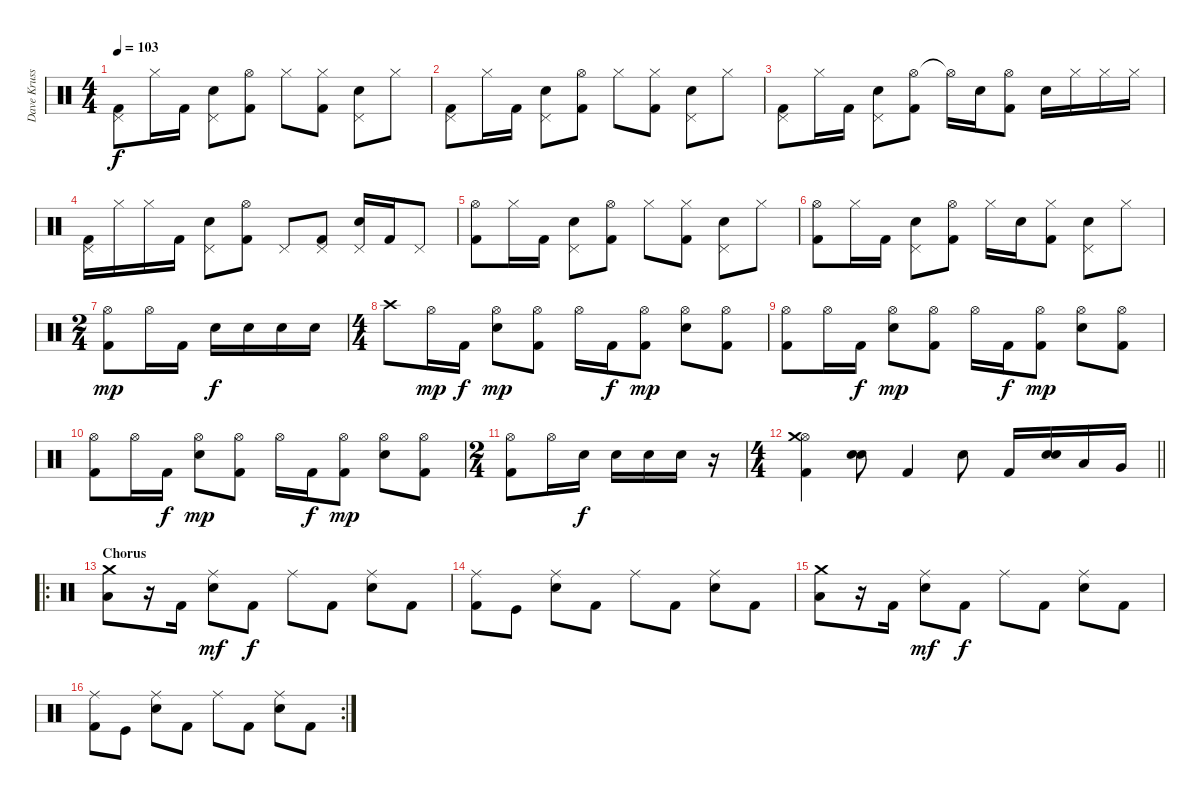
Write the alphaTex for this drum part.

\track ("Dave Krussen" "Dave Kruss") {instrument percussion}
\staff {score}
\articulation defaults
\ts (4 4)
\tempo 103
\clef neutral
\ks c
("Pedal Hi-Hat (hit)" "Kick (hit) 2").8{dy f} "Hi-Hat (closed)".16 "Kick (hit) 2".16 ("Pedal Hi-Hat (hit)" "Electric Snare (hit)").8 ("Hi-Hat (open)" "Kick (hit) 2").8 "Hi-Hat (closed)".8 ("Hi-Hat (closed)" "Kick (hit) 2").8 ("Pedal Hi-Hat (hit)" "Electric Snare (hit)").8 "Hi-Hat (closed)".8 |
("Pedal Hi-Hat (hit)" "Kick (hit) 2").8 "Hi-Hat (closed)".16 "Kick (hit) 2".16 ("Pedal Hi-Hat (hit)" "Electric Snare (hit)").8 ("Hi-Hat (open)" "Kick (hit) 2").8 "Hi-Hat (closed)".8 ("Hi-Hat (closed)" "Kick (hit) 2").8 ("Pedal Hi-Hat (hit)" "Electric Snare (hit)").8 "Hi-Hat (closed)".8 |
("Pedal Hi-Hat (hit)" "Kick (hit) 2").8 "Hi-Hat (closed)".16 "Kick (hit) 2".16 ("Pedal Hi-Hat (hit)" "Electric Snare (hit)").8 ("Hi-Hat (open)" "Kick (hit) 2").8 "Hi-Hat (open)"{t}.16 "Electric Snare (hit)".16 ("Hi-Hat (open)" "Kick (hit) 2").8 "Electric Snare (hit)".16 "Hi-Hat (closed)".16 "Hi-Hat (closed)".16 "Hi-Hat (closed)".16 |
("Pedal Hi-Hat (hit)" "Kick (hit) 2").16 "Hi-Hat (closed)".16 "Hi-Hat (closed)".16 "Kick (hit) 2".16 ("Pedal Hi-Hat (hit)" "Electric Snare (hit)").8 ("Hi-Hat (open)" "Kick (hit) 2").8 "Pedal Hi-Hat (hit)".8 ("Pedal Hi-Hat (hit)" "Kick (hit) 2").8 ("Pedal Hi-Hat (hit)" "Electric Snare (hit)").16 "Kick (hit) 2".16 "Pedal Hi-Hat (hit)".8 |
("Hi-Hat (open)" "Kick (hit) 2").8 "Hi-Hat (closed)".16 "Kick (hit) 2".16 ("Pedal Hi-Hat (hit)" "Electric Snare (hit)").8 ("Hi-Hat (open)" "Kick (hit) 2").8 "Hi-Hat (closed)".8 ("Hi-Hat (closed)" "Kick (hit) 2").8 ("Pedal Hi-Hat (hit)" "Electric Snare (hit)").8 "Hi-Hat (closed)".8 |
("Hi-Hat (open)" "Kick (hit) 2").8 "Hi-Hat (closed)".16 "Kick (hit) 2".16 ("Pedal Hi-Hat (hit)" "Electric Snare (hit)").8 ("Hi-Hat (open)" "Kick (hit) 2").8 "Hi-Hat (closed)".16 "Electric Snare (hit)".16 ("Hi-Hat (closed)" "Kick (hit) 2").8 ("Pedal Hi-Hat (hit)" "Electric Snare (hit)").8 "Hi-Hat (closed)".8 |
\ts (2 4)
("Hi-Hat (open)" "Kick (hit) 2").8{dy mp} "Hi-Hat (open)".16 "Kick (hit) 2".16 "Electric Snare (hit)".16{dy f} "Electric Snare (hit)".16 "Electric Snare (hit)".16 "Electric Snare (hit)".16 |
\ts (4 4)
"Crash high (hit)".8 "Hi-Hat (open)".16{dy mp} "Kick (hit) 2".16{dy f} ("Hi-Hat (open)" "Electric Snare (hit)").8{dy mp} ("Hi-Hat (open)" "Kick (hit) 2").8 "Hi-Hat (open)".16 "Kick (hit) 2".16{dy f} ("Hi-Hat (open)" "Kick (hit) 2").8{dy mp} ("Hi-Hat (open)" "Electric Snare (hit)").8 ("Hi-Hat (open)" "Kick (hit) 2").8 |
("Hi-Hat (open)" "Kick (hit) 2").8 "Hi-Hat (open)".16 "Kick (hit) 2".16{dy f} ("Hi-Hat (open)" "Electric Snare (hit)").8{dy mp} ("Hi-Hat (open)" "Kick (hit) 2").8 "Hi-Hat (open)".16 "Kick (hit) 2".16{dy f} ("Hi-Hat (open)" "Kick (hit) 2").8{dy mp} ("Hi-Hat (open)" "Electric Snare (hit)").8 ("Hi-Hat (open)" "Kick (hit) 2").8 |
("Hi-Hat (open)" "Kick (hit) 2").8 "Hi-Hat (open)".16 "Kick (hit) 2".16{dy f} ("Hi-Hat (open)" "Electric Snare (hit)").8{dy mp} ("Hi-Hat (open)" "Kick (hit) 2").8 "Hi-Hat (open)".16 "Kick (hit) 2".16{dy f} ("Hi-Hat (open)" "Kick (hit) 2").8{dy mp} ("Hi-Hat (open)" "Electric Snare (hit)").8 ("Hi-Hat (open)" "Kick (hit) 2").8 |
\ts (2 4)
("Hi-Hat (open)" "Kick (hit) 2").8 "Hi-Hat (open)".16 "Electric Snare (hit)".16{dy f} "Electric Snare (hit)".16 "Electric Snare (hit)".16 "Electric Snare (hit)".16 r.16 |
\ts (4 4)
\barLineRight lightlight
("Hi-Hat (open)" "Crash medium (hit)" "Kick (hit) 2").4 ("Snare (hit) 2" "Electric Snare (hit)").8{bu 120} "Kick (hit) 2".4 "Electric Snare (hit)".8 "Kick (hit) 2".16 ("Snare (hit) 2" "Electric Snare (hit)").16{bu 60} "Low Tom (hit)".16 "Very Low Tom (hit)".16 |
\ro
\section ("" "Chorus")
("Crash medium (hit)" "Low Floor Tom (hit)").8 r.16 "Kick (hit) 2".16 ("Ride (middle)" "Electric Snare (hit)").8{dy mf} "Kick (hit) 2".8{dy f} "Ride (middle)".8 "Kick (hit) 2".8 ("Ride (middle)" "Electric Snare (hit)").8 "Kick (hit) 2".8 |
("Ride (middle)" "Kick (hit) 2").8 "Kick (hit)".8 ("Ride (middle)" "Electric Snare (hit)").8 "Kick (hit) 2".8 "Ride (middle)".8 "Kick (hit) 2".8 ("Ride (middle)" "Electric Snare (hit)").8 "Kick (hit) 2".8 |
("Crash medium (hit)" "Low Floor Tom (hit)").8 r.16 "Kick (hit) 2".16 ("Ride (middle)" "Electric Snare (hit)").8{dy mf} "Kick (hit) 2".8{dy f} "Ride (middle)".8 "Kick (hit) 2".8 ("Ride (middle)" "Electric Snare (hit)").8 "Kick (hit) 2".8 |
\rc 2
("Ride (middle)" "Kick (hit) 2").8 "Kick (hit)".8 ("Ride (middle)" "Electric Snare (hit)").8 "Kick (hit) 2".8 "Ride (middle)".8 "Kick (hit) 2".8 ("Ride (middle)" "Electric Snare (hit)").8 "Kick (hit) 2".8
